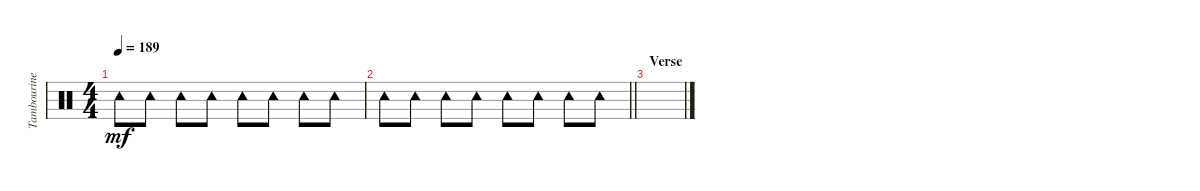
\track ("Tambourine" "Tambourine") {instrument percussion}
\staff {score}
\articulation defaults
\ts (4 4)
\tempo 189
\clef neutral
\ks c "Tambourine (hit)".8{dy mf} "Tambourine (hit)".8 "Tambourine (hit)".8 "Tambourine (hit)".8 "Tambourine (hit)".8 "Tambourine (hit)".8 "Tambourine (hit)".8 "Tambourine (hit)".8
|
\barLineRight lightlight "Tambourine (hit)".8 "Tambourine (hit)".8 "Tambourine (hit)".8 "Tambourine (hit)".8 "Tambourine (hit)".8 "Tambourine (hit)".8 "Tambourine (hit)".8 "Tambourine (hit)".8
|
\section ("" "Verse")
